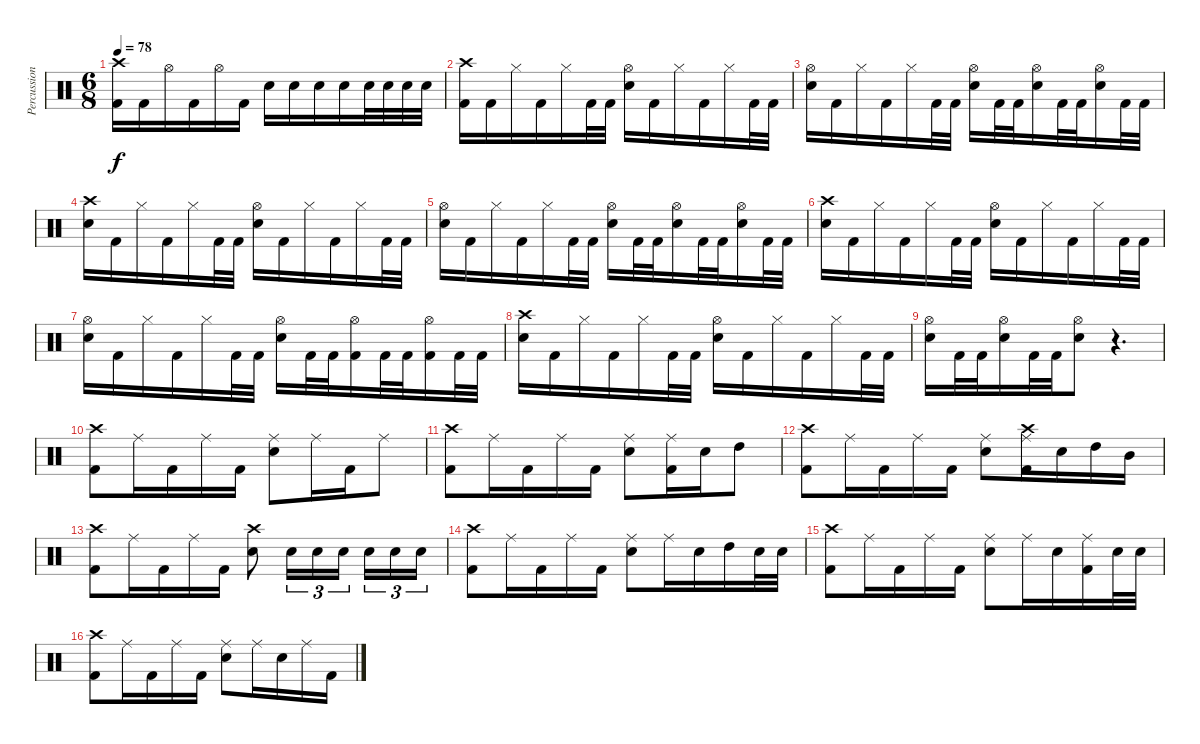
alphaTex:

\track ("Percussion" "Percussion") {instrument percussion}
\staff {score}
\articulation defaults
\ts (6 8)
\tempo 78
\clef neutral
\ks c
("Crash high (hit)" "Kick (hit) 2").16{dy f} "Kick (hit) 2".16 "Hi-Hat (open)".16 "Kick (hit) 2".16 "Hi-Hat (open)".16 "Kick (hit) 2".16 "Electric Snare (hit)".16 "Electric Snare (hit)".16 "Electric Snare (hit)".16 "Electric Snare (hit)".16 "Electric Snare (hit)".32 "Electric Snare (hit)".32 "Electric Snare (hit)".32 "Electric Snare (hit)".32 |
("Crash high (hit)" "Kick (hit) 2").16 "Kick (hit) 2".16 "Hi-Hat (closed)".16 "Kick (hit) 2".16 "Hi-Hat (closed)".16 "Kick (hit) 2".32 "Kick (hit) 2".32 ("Hi-Hat (open)" "Electric Snare (hit)").16 "Kick (hit) 2".16 "Hi-Hat (closed)".16 "Kick (hit) 2".16 "Hi-Hat (closed)".16 "Kick (hit) 2".32 "Kick (hit) 2".32 |
("Hi-Hat (open)" "Electric Snare (hit)").16 "Kick (hit) 2".16 "Hi-Hat (closed)".16 "Kick (hit) 2".16 "Hi-Hat (closed)".16 "Kick (hit) 2".32 "Kick (hit) 2".32 ("Hi-Hat (open)" "Electric Snare (hit)").16 "Kick (hit) 2".32 "Kick (hit) 2".32 ("Hi-Hat (open)" "Electric Snare (hit)").16 "Kick (hit) 2".32 "Kick (hit) 2".32 ("Hi-Hat (open)" "Electric Snare (hit)").16 "Kick (hit) 2".32 "Kick (hit) 2".32 |
("Crash high (hit)" "Electric Snare (hit)").16 "Kick (hit) 2".16 "Hi-Hat (closed)".16 "Kick (hit) 2".16 "Hi-Hat (closed)".16 "Kick (hit) 2".32 "Kick (hit) 2".32 ("Hi-Hat (open)" "Electric Snare (hit)").16 "Kick (hit) 2".16 "Hi-Hat (closed)".16 "Kick (hit) 2".16 "Hi-Hat (closed)".16 "Kick (hit) 2".32 "Kick (hit) 2".32 |
("Hi-Hat (open)" "Electric Snare (hit)").16 "Kick (hit) 2".16 "Hi-Hat (closed)".16 "Kick (hit) 2".16 "Hi-Hat (closed)".16 "Kick (hit) 2".32 "Kick (hit) 2".32 ("Hi-Hat (open)" "Electric Snare (hit)").16 "Kick (hit) 2".32 "Kick (hit) 2".32 ("Hi-Hat (open)" "Electric Snare (hit)").16 "Kick (hit) 2".32 "Kick (hit) 2".32 ("Hi-Hat (open)" "Electric Snare (hit)").16 "Kick (hit) 2".32 "Kick (hit) 2".32 |
("Crash high (hit)" "Electric Snare (hit)").16 "Kick (hit) 2".16 "Hi-Hat (closed)".16 "Kick (hit) 2".16 "Hi-Hat (closed)".16 "Kick (hit) 2".32 "Kick (hit) 2".32 ("Hi-Hat (open)" "Electric Snare (hit)").16 "Kick (hit) 2".16 "Hi-Hat (closed)".16 "Kick (hit) 2".16 "Hi-Hat (closed)".16 "Kick (hit) 2".32 "Kick (hit) 2".32 |
("Hi-Hat (open)" "Electric Snare (hit)").16 "Kick (hit) 2".16 "Hi-Hat (closed)".16 "Kick (hit) 2".16 "Hi-Hat (closed)".16 "Kick (hit) 2".32 "Kick (hit) 2".32 ("Hi-Hat (open)" "Electric Snare (hit)").16 "Kick (hit) 2".32 "Kick (hit) 2".32 ("Hi-Hat (open)" "Kick (hit) 2").16 "Kick (hit) 2".32 "Kick (hit) 2".32 ("Hi-Hat (open)" "Kick (hit) 2").16 "Kick (hit) 2".32 "Kick (hit) 2".32 |
("Crash high (hit)" "Electric Snare (hit)").16 "Kick (hit) 2".16 "Hi-Hat (closed)".16 "Kick (hit) 2".16 "Hi-Hat (closed)".16 "Kick (hit) 2".32 "Kick (hit) 2".32 ("Hi-Hat (open)" "Electric Snare (hit)").16 "Kick (hit) 2".16 "Hi-Hat (closed)".16 "Kick (hit) 2".16 "Hi-Hat (closed)".16 "Kick (hit) 2".32 "Kick (hit) 2".32 |
("Hi-Hat (open)" "Electric Snare (hit)").16 "Kick (hit) 2".32 "Kick (hit) 2".32 ("Hi-Hat (open)" "Electric Snare (hit)").16 "Kick (hit) 2".32 "Kick (hit) 2".32 ("Hi-Hat (open)" "Electric Snare (hit)").8 r.4{d} |
("Crash high (hit)" "Kick (hit) 2").8 "Ride (middle)".16 "Kick (hit) 2".16 "Ride (middle)".16 "Kick (hit) 2".16 ("Ride (middle)" "Electric Snare (hit)").8 "Ride (middle)".16 "Kick (hit) 2".16 "Ride (middle)".8 |
("Crash high (hit)" "Kick (hit) 2").8 "Ride (middle)".16 "Kick (hit) 2".16 "Ride (middle)".16 "Kick (hit) 2".16 ("Ride (middle)" "Electric Snare (hit)").8 ("Ride (middle)" "Kick (hit) 2").16 "Electric Snare (hit)".16 "High Tom (hit)".8 |
("Crash high (hit)" "Kick (hit) 2").8 "Ride (middle)".16 "Kick (hit) 2".16 "Ride (middle)".16 "Kick (hit) 2".16 ("Ride (middle)" "Electric Snare (hit)").8 ("Crash high (hit)" "Ride (middle)" "Kick (hit) 2").16 "Electric Snare (hit)".16 "High Tom (hit)".16 "Mid Tom (hit)".16 |
("Crash high (hit)" "Kick (hit) 2").8 "Ride (middle)".16 "Kick (hit) 2".16 "Ride (middle)".16 "Kick (hit) 2".16 ("Crash high (hit)" "Electric Snare (hit)").8 "Electric Snare (hit)".16{tu (3 2)} "Electric Snare (hit)".16{tu (3 2)} "Electric Snare (hit)".16{tu (3 2)} "Electric Snare (hit)".16{tu (3 2)} "Electric Snare (hit)".16{tu (3 2)} "Electric Snare (hit)".16{tu (3 2)} |
("Crash high (hit)" "Kick (hit) 2").8 "Ride (middle)".16 "Kick (hit) 2".16 "Ride (middle)".16 "Kick (hit) 2".16 ("Ride (middle)" "Electric Snare (hit)").8 "Ride (middle)".16 "Electric Snare (hit)".16 "High Tom (hit)".16 "Electric Snare (hit)".32 "Electric Snare (hit)".32 |
("Crash high (hit)" "Kick (hit) 2").8 "Ride (middle)".16 "Kick (hit) 2".16 "Ride (middle)".16 "Kick (hit) 2".16 ("Ride (middle)" "Electric Snare (hit)").8 "Ride (middle)".16 "Electric Snare (hit)".16 ("Ride (middle)" "Kick (hit) 2").16 "Electric Snare (hit)".32 "Electric Snare (hit)".32 |
("Crash high (hit)" "Kick (hit) 2").8 "Ride (middle)".16 "Kick (hit) 2".16 "Ride (middle)".16 "Kick (hit) 2".16 ("Ride (middle)" "Electric Snare (hit)").8 "Ride (middle)".16 "Electric Snare (hit)".16 "Ride (middle)".16 "Kick (hit) 2".16
